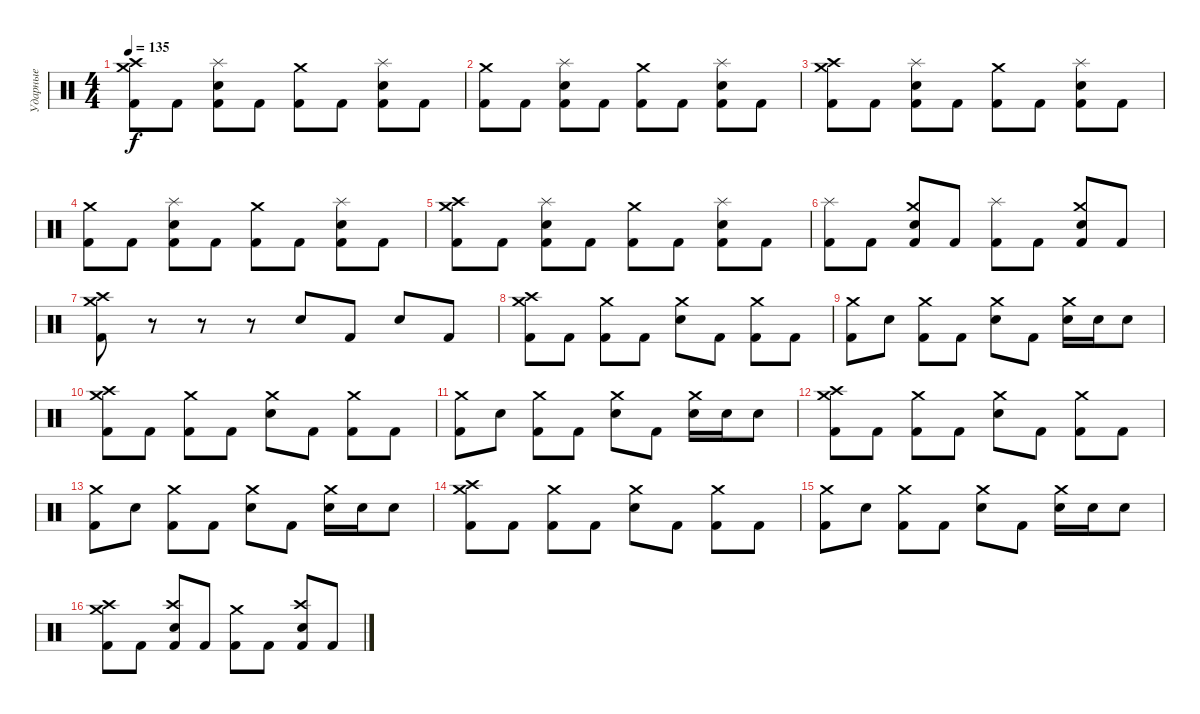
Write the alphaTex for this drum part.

\track ("Ударные" "Ударные") {instrument percussion}
\staff {score}
\articulation defaults
\ts (4 4)
\tempo 135
\clef neutral
\ks c
("Kick (hit) 2" "Crash medium (hit)" "Crash high (hit)").8{dy f} "Kick (hit) 2".8 ("Kick (hit) 2" "Electric Snare (hit)" "Splash (hit)").8 "Kick (hit) 2".8 ("Kick (hit) 2" "Crash medium (hit)").8 "Kick (hit) 2".8 ("Kick (hit) 2" "Electric Snare (hit)" "Splash (hit)").8 "Kick (hit) 2".8 |
("Kick (hit) 2" "Crash medium (hit)").8 "Kick (hit) 2".8 ("Kick (hit) 2" "Electric Snare (hit)" "Splash (hit)").8 "Kick (hit) 2".8 ("Kick (hit) 2" "Crash medium (hit)").8 "Kick (hit) 2".8 ("Kick (hit) 2" "Electric Snare (hit)" "Splash (hit)").8 "Kick (hit) 2".8 |
("Kick (hit) 2" "Crash medium (hit)" "Crash high (hit)").8 "Kick (hit) 2".8 ("Kick (hit) 2" "Electric Snare (hit)" "Splash (hit)").8 "Kick (hit) 2".8 ("Kick (hit) 2" "Crash medium (hit)").8 "Kick (hit) 2".8 ("Kick (hit) 2" "Electric Snare (hit)" "Splash (hit)").8 "Kick (hit) 2".8 |
("Kick (hit) 2" "Crash medium (hit)").8 "Kick (hit) 2".8 ("Kick (hit) 2" "Electric Snare (hit)" "Splash (hit)").8 "Kick (hit) 2".8 ("Kick (hit) 2" "Crash medium (hit)").8 "Kick (hit) 2".8 ("Kick (hit) 2" "Electric Snare (hit)" "Splash (hit)").8 "Kick (hit) 2".8 |
("Kick (hit) 2" "Crash medium (hit)" "Crash high (hit)").8 "Kick (hit) 2".8 ("Kick (hit) 2" "Electric Snare (hit)" "Splash (hit)").8 "Kick (hit) 2".8 ("Kick (hit) 2" "Crash medium (hit)").8 "Kick (hit) 2".8 ("Kick (hit) 2" "Electric Snare (hit)" "Splash (hit)").8 "Kick (hit) 2".8 |
("Kick (hit) 2" "Splash (hit)").8 "Kick (hit) 2".8 ("Kick (hit) 2" "Electric Snare (hit)" "Crash medium (hit)").8 "Kick (hit) 2".8 ("Kick (hit) 2" "Splash (hit)").8 "Kick (hit) 2".8 ("Kick (hit) 2" "Electric Snare (hit)" "Crash medium (hit)").8 "Kick (hit) 2".8 |
("Kick (hit) 2" "Crash medium (hit)" "Crash high (hit)").8 r.8 r.8 r.8 "Electric Snare (hit)".8 "Kick (hit) 2".8 "Electric Snare (hit)".8 "Kick (hit) 2".8 |
("Kick (hit) 2" "Crash medium (hit)" "Crash high (hit)").8 "Kick (hit) 2".8 ("Kick (hit) 2" "Crash medium (hit)").8 "Kick (hit) 2".8 ("Electric Snare (hit)" "Crash medium (hit)").8 "Kick (hit) 2".8 ("Kick (hit) 2" "Crash medium (hit)").8 "Kick (hit) 2".8 |
("Kick (hit) 2" "Crash medium (hit)").8 "Electric Snare (hit)".8 ("Kick (hit) 2" "Crash medium (hit)").8 "Kick (hit) 2".8 ("Electric Snare (hit)" "Crash medium (hit)").8 "Kick (hit) 2".8 ("Electric Snare (hit)" "Crash medium (hit)").16 "Electric Snare (hit)".16 "Electric Snare (hit)".8 |
("Kick (hit) 2" "Crash medium (hit)" "Crash high (hit)").8 "Kick (hit) 2".8 ("Kick (hit) 2" "Crash medium (hit)").8 "Kick (hit) 2".8 ("Electric Snare (hit)" "Crash medium (hit)").8 "Kick (hit) 2".8 ("Kick (hit) 2" "Crash medium (hit)").8 "Kick (hit) 2".8 |
("Kick (hit) 2" "Crash medium (hit)").8 "Electric Snare (hit)".8 ("Kick (hit) 2" "Crash medium (hit)").8 "Kick (hit) 2".8 ("Electric Snare (hit)" "Crash medium (hit)").8 "Kick (hit) 2".8 ("Electric Snare (hit)" "Crash medium (hit)").16 "Electric Snare (hit)".16 "Electric Snare (hit)".8 |
("Kick (hit) 2" "Crash medium (hit)" "Crash high (hit)").8 "Kick (hit) 2".8 ("Kick (hit) 2" "Crash medium (hit)").8 "Kick (hit) 2".8 ("Electric Snare (hit)" "Crash medium (hit)").8 "Kick (hit) 2".8 ("Kick (hit) 2" "Crash medium (hit)").8 "Kick (hit) 2".8 |
("Kick (hit) 2" "Crash medium (hit)").8 "Electric Snare (hit)".8 ("Kick (hit) 2" "Crash medium (hit)").8 "Kick (hit) 2".8 ("Electric Snare (hit)" "Crash medium (hit)").8 "Kick (hit) 2".8 ("Electric Snare (hit)" "Crash medium (hit)").16 "Electric Snare (hit)".16 "Electric Snare (hit)".8 |
("Kick (hit) 2" "Crash medium (hit)" "Crash high (hit)").8 "Kick (hit) 2".8 ("Kick (hit) 2" "Crash medium (hit)").8 "Kick (hit) 2".8 ("Electric Snare (hit)" "Crash medium (hit)").8 "Kick (hit) 2".8 ("Kick (hit) 2" "Crash medium (hit)").8 "Kick (hit) 2".8 |
("Kick (hit) 2" "Crash medium (hit)").8 "Electric Snare (hit)".8 ("Kick (hit) 2" "Crash medium (hit)").8 "Kick (hit) 2".8 ("Electric Snare (hit)" "Crash medium (hit)").8 "Kick (hit) 2".8 ("Electric Snare (hit)" "Crash medium (hit)").16 "Electric Snare (hit)".16 "Electric Snare (hit)".8 |
("Kick (hit) 2" "Crash medium (hit)" "Crash high (hit)").8 "Kick (hit) 2".8 ("Kick (hit) 2" "Electric Snare (hit)" "Crash high (hit)").8 "Kick (hit) 2".8 ("Kick (hit) 2" "Crash medium (hit)").8 "Kick (hit) 2".8 ("Kick (hit) 2" "Electric Snare (hit)" "Crash high (hit)").8 "Kick (hit) 2".8
